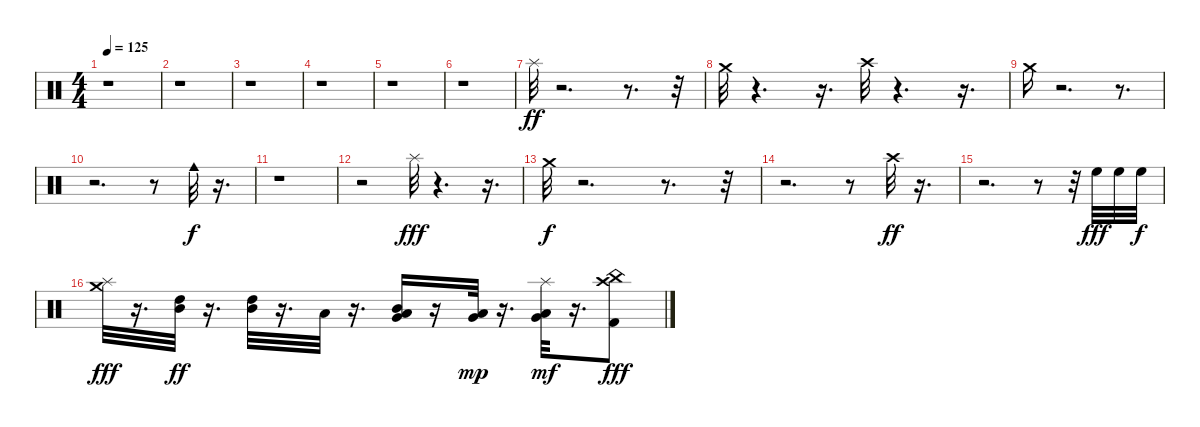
\track "" {instrument percussion}
\staff {score}
\articulation defaults
\ts (4 4)
\tempo 125
\clef neutral
\ks c
r.1{dy f} |
r.1 |
r.1 |
r.1 |
r.1 |
r.1 |
"Splash (hit)".32{dy ff} r.2{d} r.8{d} r.32 |
"Crash medium (hit)".32 r.4{d} r.16{d} "Crash high (hit)".32 r.4{d} r.16{d} |
"Crash medium (hit)".16 r.2{d} r.8{d} |
r.2{d} r.8 "Cowbell medium (hit)".32{dy f} r.16{d} |
r.1 |
r.2 "Splash (hit)".32{dy fff} r.4{d} r.16{d} |
"Crash medium (hit)".32{dy f} r.2{d} r.8{d} r.32 |
r.2{d} r.8 "Crash high (hit)".32{dy ff} r.16{d} |
r.2{d} r.8 r.32 "High Floor Tom (hit)".32{dy fff} "High Floor Tom (hit)".32 "High Floor Tom (hit)".32{dy f} |
("Crash medium (hit)" "Splash (hit)").32{dy fff} r.16{d} ("High Tom (hit)" "Mid Tom (hit)").32{dy ff} r.16{d} ("Mid Tom (hit)" "High Tom (hit)").32 r.16{d} "Low Tom (hit)".32 r.16{d} ("Very Low Tom (hit)" "Mid Tom (hit)" "Low Tom (hit)").16 r.16 ("Very Low Tom (hit)" "Low Tom (hit)").32{dy mp} r.16{d} ("Low Floor Tom (hit)" "Very Low Tom (hit)" "Splash (hit)").32{dy mf} r.16{d} ("Kick (hit) 2" "China (hit)" "Crash high (hit)").8{dy fff}
